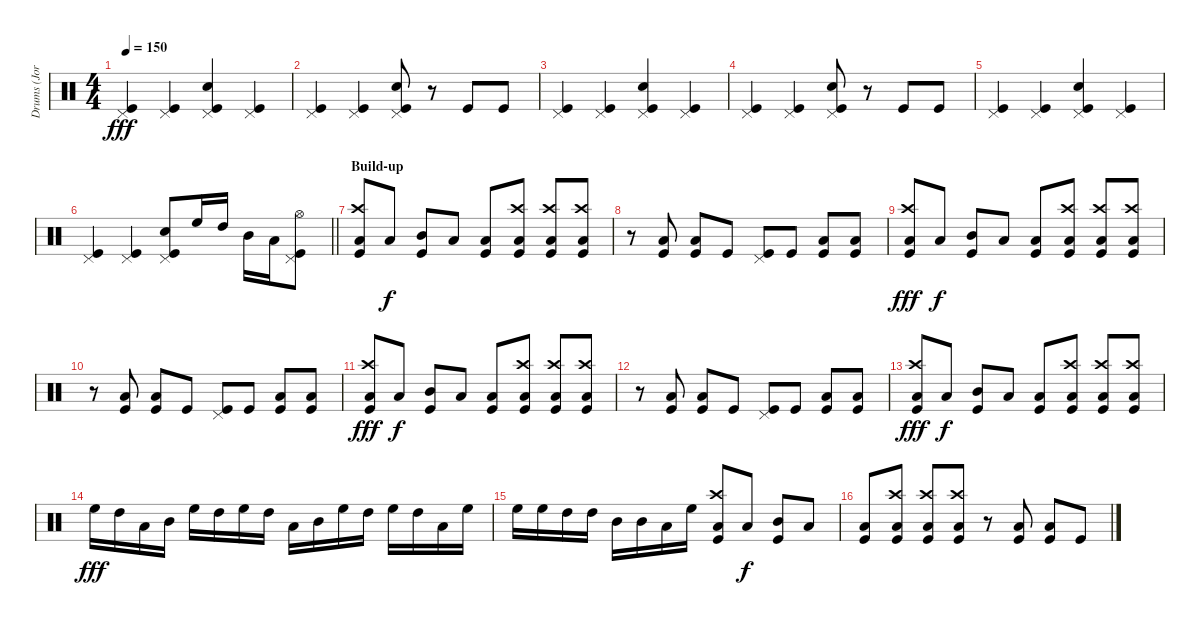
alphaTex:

\track ("Drums (Jordan Hastings)" "Drums (Jor") {instrument percussion}
\staff {score}
\articulation defaults
\ts (4 4)
\tempo 150
\clef neutral
\ks c
("Kick (hit)" "Pedal Hi-Hat (hit)").4{dy fff} ("Kick (hit)" "Pedal Hi-Hat (hit)").4 ("Kick (hit)" "Pedal Hi-Hat (hit)" "Electric Snare (hit)").4 ("Kick (hit)" "Pedal Hi-Hat (hit)").4 |
("Kick (hit)" "Pedal Hi-Hat (hit)").4 ("Kick (hit)" "Pedal Hi-Hat (hit)").4 ("Kick (hit)" "Pedal Hi-Hat (hit)" "Electric Snare (hit)").8 r.8 "Kick (hit)".8 "Kick (hit)".8 |
("Kick (hit)" "Pedal Hi-Hat (hit)").4 ("Kick (hit)" "Pedal Hi-Hat (hit)").4 ("Kick (hit)" "Pedal Hi-Hat (hit)" "Electric Snare (hit)").4 ("Kick (hit)" "Pedal Hi-Hat (hit)").4 |
("Kick (hit)" "Pedal Hi-Hat (hit)").4 ("Kick (hit)" "Pedal Hi-Hat (hit)").4 ("Kick (hit)" "Pedal Hi-Hat (hit)" "Electric Snare (hit)").8 r.8 "Kick (hit)".8 "Kick (hit)".8 |
("Kick (hit)" "Pedal Hi-Hat (hit)").4 ("Kick (hit)" "Pedal Hi-Hat (hit)").4 ("Kick (hit)" "Pedal Hi-Hat (hit)" "Electric Snare (hit)").4 ("Kick (hit)" "Pedal Hi-Hat (hit)").4 |
\barLineRight lightlight
("Kick (hit)" "Pedal Hi-Hat (hit)").4 ("Kick (hit)" "Pedal Hi-Hat (hit)").4 ("Kick (hit)" "Pedal Hi-Hat (hit)" "Electric Snare (hit)").8 "High Floor Tom (hit)".16 "High Tom (hit)".16 "Mid Tom (hit)".16 "Low Tom (hit)".16 ("Hi-Hat (open)" "Pedal Hi-Hat (hit)" "Kick (hit)").8 |
\section ("" "Build-up")
("Crash high (hit)" "Low Floor Tom (hit)" "Kick (hit)").8 "Low Tom (hit)".8{dy f} ("Kick (hit)" "Mid Tom (hit)").8 "Low Tom (hit)".8 ("Low Floor Tom (hit)" "Kick (hit)").8 ("Crash high (hit)" "Low Floor Tom (hit)" "Kick (hit)").8 ("Crash high (hit)" "Low Floor Tom (hit)" "Kick (hit)").8 ("Crash high (hit)" "Low Floor Tom (hit)" "Kick (hit)").8 |
r.8 ("Low Floor Tom (hit)" "Kick (hit)").8 ("Low Floor Tom (hit)" "Kick (hit)").8 "Kick (hit)".8 ("Pedal Hi-Hat (hit)" "Kick (hit)").8 "Kick (hit)".8 ("Low Floor Tom (hit)" "Kick (hit)").8 ("Low Floor Tom (hit)" "Kick (hit)").8 |
("Crash high (hit)" "Low Floor Tom (hit)" "Kick (hit)").8{dy fff} "Low Tom (hit)".8{dy f} ("Kick (hit)" "Mid Tom (hit)").8 "Low Tom (hit)".8 ("Low Floor Tom (hit)" "Kick (hit)").8 ("Crash high (hit)" "Low Floor Tom (hit)" "Kick (hit)").8 ("Crash high (hit)" "Low Floor Tom (hit)" "Kick (hit)").8 ("Crash high (hit)" "Low Floor Tom (hit)" "Kick (hit)").8 |
r.8 ("Low Floor Tom (hit)" "Kick (hit)").8 ("Low Floor Tom (hit)" "Kick (hit)").8 "Kick (hit)".8 ("Pedal Hi-Hat (hit)" "Kick (hit)").8 "Kick (hit)".8 ("Low Floor Tom (hit)" "Kick (hit)").8 ("Low Floor Tom (hit)" "Kick (hit)").8 |
("Crash high (hit)" "Low Floor Tom (hit)" "Kick (hit)").8{dy fff} "Low Tom (hit)".8{dy f} ("Kick (hit)" "Mid Tom (hit)").8 "Low Tom (hit)".8 ("Low Floor Tom (hit)" "Kick (hit)").8 ("Crash high (hit)" "Low Floor Tom (hit)" "Kick (hit)").8 ("Crash high (hit)" "Low Floor Tom (hit)" "Kick (hit)").8 ("Crash high (hit)" "Low Floor Tom (hit)" "Kick (hit)").8 |
r.8 ("Low Floor Tom (hit)" "Kick (hit)").8 ("Low Floor Tom (hit)" "Kick (hit)").8 "Kick (hit)".8 ("Pedal Hi-Hat (hit)" "Kick (hit)").8 "Kick (hit)".8 ("Low Floor Tom (hit)" "Kick (hit)").8 ("Low Floor Tom (hit)" "Kick (hit)").8 |
("Crash high (hit)" "Low Floor Tom (hit)" "Kick (hit)").8{dy fff} "Low Tom (hit)".8{dy f} ("Kick (hit)" "Mid Tom (hit)").8 "Low Tom (hit)".8 ("Low Floor Tom (hit)" "Kick (hit)").8 ("Crash high (hit)" "Low Floor Tom (hit)" "Kick (hit)").8 ("Crash high (hit)" "Low Floor Tom (hit)" "Kick (hit)").8 ("Crash high (hit)" "Low Floor Tom (hit)" "Kick (hit)").8 |
"High Floor Tom (hit)".16{dy fff} "High Tom (hit)".16 "Low Tom (hit)".16 "Mid Tom (hit)".16 "High Floor Tom (hit)".16 "High Tom (hit)".16 "High Floor Tom (hit)".16 "High Tom (hit)".16 "Low Tom (hit)".16 "Mid Tom (hit)".16 "High Floor Tom (hit)".16 "High Tom (hit)".16 "High Floor Tom (hit)".16 "High Tom (hit)".16 "Low Tom (hit)".16 "High Floor Tom (hit)".16 |
"High Floor Tom (hit)".16 "High Floor Tom (hit)".16 "High Tom (hit)".16 "High Tom (hit)".16 "Mid Tom (hit)".16 "Mid Tom (hit)".16 "Low Tom (hit)".16 "High Floor Tom (hit)".16 ("Crash high (hit)" "Low Floor Tom (hit)" "Kick (hit)").8 "Low Tom (hit)".8{dy f} ("Kick (hit)" "Mid Tom (hit)").8 "Low Tom (hit)".8 |
("Low Floor Tom (hit)" "Kick (hit)").8 ("Crash high (hit)" "Low Floor Tom (hit)" "Kick (hit)").8 ("Crash high (hit)" "Low Floor Tom (hit)" "Kick (hit)").8 ("Crash high (hit)" "Low Floor Tom (hit)" "Kick (hit)").8 r.8 ("Low Floor Tom (hit)" "Kick (hit)").8 ("Low Floor Tom (hit)" "Kick (hit)").8 "Kick (hit)".8
